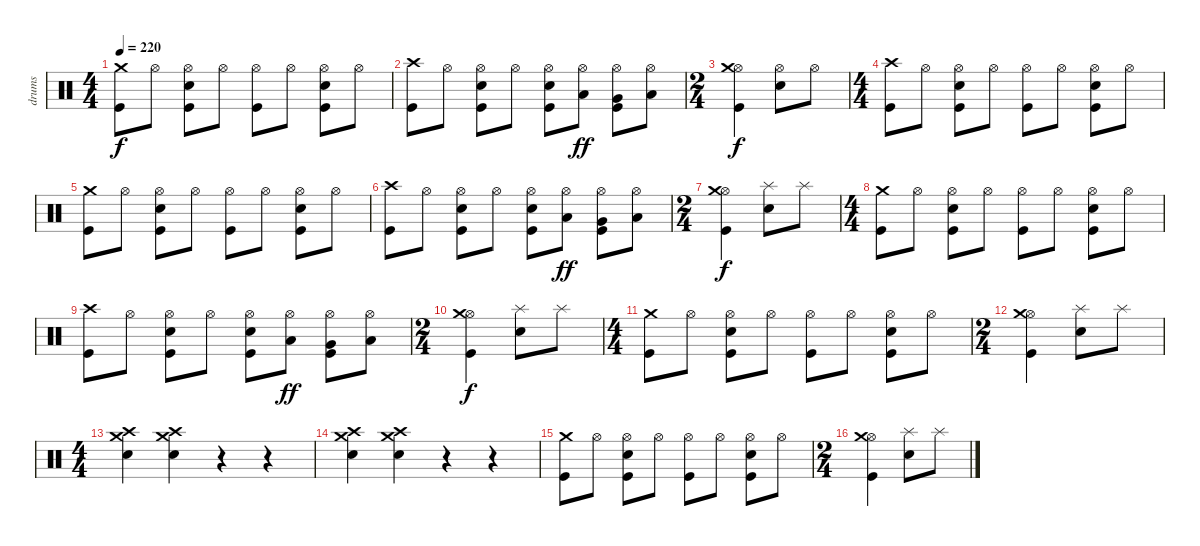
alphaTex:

\track ("drums" "drums") {instrument percussion}
\staff {score}
\articulation defaults
\ts (4 4)
\tempo 220
\clef neutral
\ks c
("Crash medium (hit)" "Kick (hit)").8{dy f} "Hi-Hat (open)".8 ("Hi-Hat (open)" "Electric Snare (hit)" "Kick (hit)").8 "Hi-Hat (open)".8 ("Hi-Hat (open)" "Kick (hit)").8 "Hi-Hat (open)".8 ("Hi-Hat (open)" "Electric Snare (hit)" "Kick (hit)").8 "Hi-Hat (open)".8 |
("Crash high (hit)" "Kick (hit)").8 "Hi-Hat (open)".8 ("Hi-Hat (open)" "Electric Snare (hit)" "Kick (hit)").8 "Hi-Hat (open)".8 ("Hi-Hat (open)" "Electric Snare (hit)" "Kick (hit)").8 ("Hi-Hat (open)" "Low Floor Tom (hit)").8{dy ff} ("Hi-Hat (open)" "Very Low Tom (hit)" "Kick (hit)").8 ("Hi-Hat (open)" "Low Tom (hit)").8 |
\ts (2 4)
("Hi-Hat (open)" "Crash medium (hit)" "Kick (hit)").4{dy f} ("Hi-Hat (open)" "Electric Snare (hit)").8 "Hi-Hat (open)".8 |
\ts (4 4)
("Crash high (hit)" "Kick (hit)").8 "Hi-Hat (open)".8 ("Hi-Hat (open)" "Electric Snare (hit)" "Kick (hit)").8 "Hi-Hat (open)".8 ("Hi-Hat (open)" "Kick (hit)").8 "Hi-Hat (open)".8 ("Hi-Hat (open)" "Electric Snare (hit)" "Kick (hit)").8 "Hi-Hat (open)".8 |
("Crash medium (hit)" "Kick (hit)").8 "Hi-Hat (open)".8 ("Hi-Hat (open)" "Electric Snare (hit)" "Kick (hit)").8 "Hi-Hat (open)".8 ("Hi-Hat (open)" "Kick (hit)").8 "Hi-Hat (open)".8 ("Hi-Hat (open)" "Electric Snare (hit)" "Kick (hit)").8 "Hi-Hat (open)".8 |
("Crash high (hit)" "Kick (hit)").8 "Hi-Hat (open)".8 ("Hi-Hat (open)" "Electric Snare (hit)" "Kick (hit)").8 "Hi-Hat (open)".8 ("Hi-Hat (open)" "Electric Snare (hit)" "Kick (hit)").8 ("Hi-Hat (open)" "Low Floor Tom (hit)").8{dy ff} ("Hi-Hat (open)" "Very Low Tom (hit)" "Kick (hit)").8 ("Hi-Hat (open)" "Low Tom (hit)").8 |
\ts (2 4)
("Hi-Hat (open)" "Crash medium (hit)" "Kick (hit)").4{dy f} ("Splash (hit)" "Electric Snare (hit)").8 "Splash (hit)".8 |
\ts (4 4)
("Crash medium (hit)" "Kick (hit)").8 "Hi-Hat (open)".8 ("Hi-Hat (open)" "Electric Snare (hit)" "Kick (hit)").8 "Hi-Hat (open)".8 ("Hi-Hat (open)" "Kick (hit)").8 "Hi-Hat (open)".8 ("Hi-Hat (open)" "Electric Snare (hit)" "Kick (hit)").8 "Hi-Hat (open)".8 |
("Crash high (hit)" "Kick (hit)").8 "Hi-Hat (open)".8 ("Hi-Hat (open)" "Electric Snare (hit)" "Kick (hit)").8 "Hi-Hat (open)".8 ("Hi-Hat (open)" "Electric Snare (hit)" "Kick (hit)").8 ("Hi-Hat (open)" "Low Floor Tom (hit)").8{dy ff} ("Hi-Hat (open)" "Very Low Tom (hit)" "Kick (hit)").8 ("Hi-Hat (open)" "Low Tom (hit)").8 |
\ts (2 4)
("Hi-Hat (open)" "Crash medium (hit)" "Kick (hit)").4{dy f} ("Splash (hit)" "Electric Snare (hit)").8 "Splash (hit)".8 |
\ts (4 4)
("Crash medium (hit)" "Kick (hit)").8 "Hi-Hat (open)".8 ("Hi-Hat (open)" "Electric Snare (hit)" "Kick (hit)").8 "Hi-Hat (open)".8 ("Hi-Hat (open)" "Kick (hit)").8 "Hi-Hat (open)".8 ("Hi-Hat (open)" "Electric Snare (hit)" "Kick (hit)").8 "Hi-Hat (open)".8 |
\ts (2 4)
("Hi-Hat (open)" "Crash medium (hit)" "Kick (hit)").4 ("Splash (hit)" "Electric Snare (hit)").8 "Splash (hit)".8 |
\ts (4 4)
("Crash medium (hit)" "Crash high (hit)" "Electric Snare (hit)").4 ("Crash medium (hit)" "Crash high (hit)" "Electric Snare (hit)").4 r.4 r.4 |
("Crash medium (hit)" "Crash high (hit)" "Electric Snare (hit)").4 ("Crash medium (hit)" "Crash high (hit)" "Electric Snare (hit)").4 r.4 r.4 |
("Crash medium (hit)" "Kick (hit)").8 "Hi-Hat (open)".8 ("Hi-Hat (open)" "Electric Snare (hit)" "Kick (hit)").8 "Hi-Hat (open)".8 ("Hi-Hat (open)" "Kick (hit)").8 "Hi-Hat (open)".8 ("Hi-Hat (open)" "Electric Snare (hit)" "Kick (hit)").8 "Hi-Hat (open)".8 |
\ts (2 4)
("Hi-Hat (open)" "Crash medium (hit)" "Kick (hit)").4 ("Splash (hit)" "Electric Snare (hit)").8 "Splash (hit)".8
